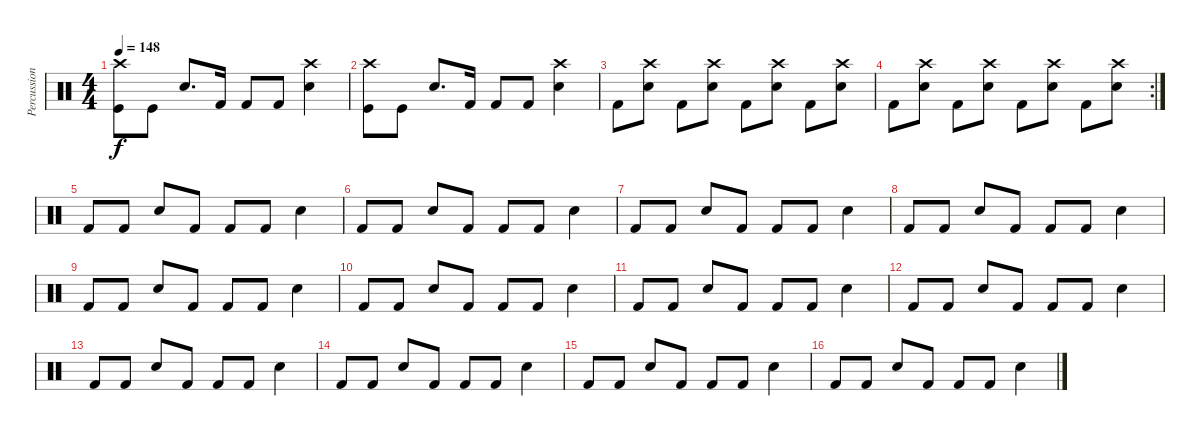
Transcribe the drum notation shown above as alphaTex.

\track ("Percussion" "Percussion") {instrument percussion}
\staff {score}
\articulation defaults
\ts (4 4)
\tempo 148
\clef neutral
\ks c
("Crash high (hit)" "Kick (hit)").8{dy f} "Kick (hit)".8 "Snare (hit) 2".8{d} "Kick (hit) 2".16 "Kick (hit) 2".8 "Kick (hit) 2".8 ("Crash high (hit)" "Snare (hit) 2").4 |
("Crash high (hit)" "Kick (hit)").8 "Kick (hit)".8 "Snare (hit) 2".8{d} "Kick (hit) 2".16 "Kick (hit) 2".8 "Kick (hit) 2".8 ("Crash high (hit)" "Snare (hit) 2").4 |
"Kick (hit) 2".8 ("Crash high (hit)" "Snare (hit) 2").8 "Kick (hit) 2".8 ("Crash high (hit)" "Snare (hit) 2").8 "Kick (hit) 2".8 ("Crash high (hit)" "Snare (hit) 2").8 "Kick (hit) 2".8 ("Crash high (hit)" "Snare (hit) 2").8 |
\rc 2 "Kick (hit) 2".8
("Crash high (hit)" "Snare (hit) 2").8 "Kick (hit) 2".8 ("Crash high (hit)" "Snare (hit) 2").8 "Kick (hit) 2".8 ("Crash high (hit)" "Snare (hit) 2").8 "Kick (hit) 2".8 ("Crash high (hit)" "Snare (hit) 2").8 |
"Kick (hit) 2".8 "Kick (hit) 2".8 "Snare (hit) 2".8 "Kick (hit) 2".8 "Kick (hit) 2".8 "Kick (hit) 2".8 "Snare (hit) 2".4 |
"Kick (hit) 2".8 "Kick (hit) 2".8 "Snare (hit) 2".8 "Kick (hit) 2".8 "Kick (hit) 2".8 "Kick (hit) 2".8 "Snare (hit) 2".4 |
"Kick (hit) 2".8 "Kick (hit) 2".8 "Snare (hit) 2".8 "Kick (hit) 2".8 "Kick (hit) 2".8 "Kick (hit) 2".8 "Snare (hit) 2".4 |
"Kick (hit) 2".8 "Kick (hit) 2".8 "Snare (hit) 2".8 "Kick (hit) 2".8 "Kick (hit) 2".8 "Kick (hit) 2".8 "Snare (hit) 2".4 |
"Kick (hit) 2".8 "Kick (hit) 2".8 "Snare (hit) 2".8 "Kick (hit) 2".8 "Kick (hit) 2".8 "Kick (hit) 2".8 "Snare (hit) 2".4 |
"Kick (hit) 2".8 "Kick (hit) 2".8 "Snare (hit) 2".8 "Kick (hit) 2".8 "Kick (hit) 2".8 "Kick (hit) 2".8 "Snare (hit) 2".4 |
"Kick (hit) 2".8 "Kick (hit) 2".8 "Snare (hit) 2".8 "Kick (hit) 2".8 "Kick (hit) 2".8 "Kick (hit) 2".8 "Snare (hit) 2".4 |
"Kick (hit) 2".8 "Kick (hit) 2".8 "Snare (hit) 2".8 "Kick (hit) 2".8 "Kick (hit) 2".8 "Kick (hit) 2".8 "Snare (hit) 2".4 |
"Kick (hit) 2".8 "Kick (hit) 2".8 "Snare (hit) 2".8 "Kick (hit) 2".8 "Kick (hit) 2".8 "Kick (hit) 2".8 "Snare (hit) 2".4 |
"Kick (hit) 2".8 "Kick (hit) 2".8 "Snare (hit) 2".8 "Kick (hit) 2".8 "Kick (hit) 2".8 "Kick (hit) 2".8 "Snare (hit) 2".4 |
"Kick (hit) 2".8 "Kick (hit) 2".8 "Snare (hit) 2".8 "Kick (hit) 2".8 "Kick (hit) 2".8 "Kick (hit) 2".8 "Snare (hit) 2".4 |
"Kick (hit) 2".8 "Kick (hit) 2".8 "Snare (hit) 2".8 "Kick (hit) 2".8 "Kick (hit) 2".8 "Kick (hit) 2".8 "Snare (hit) 2".4
